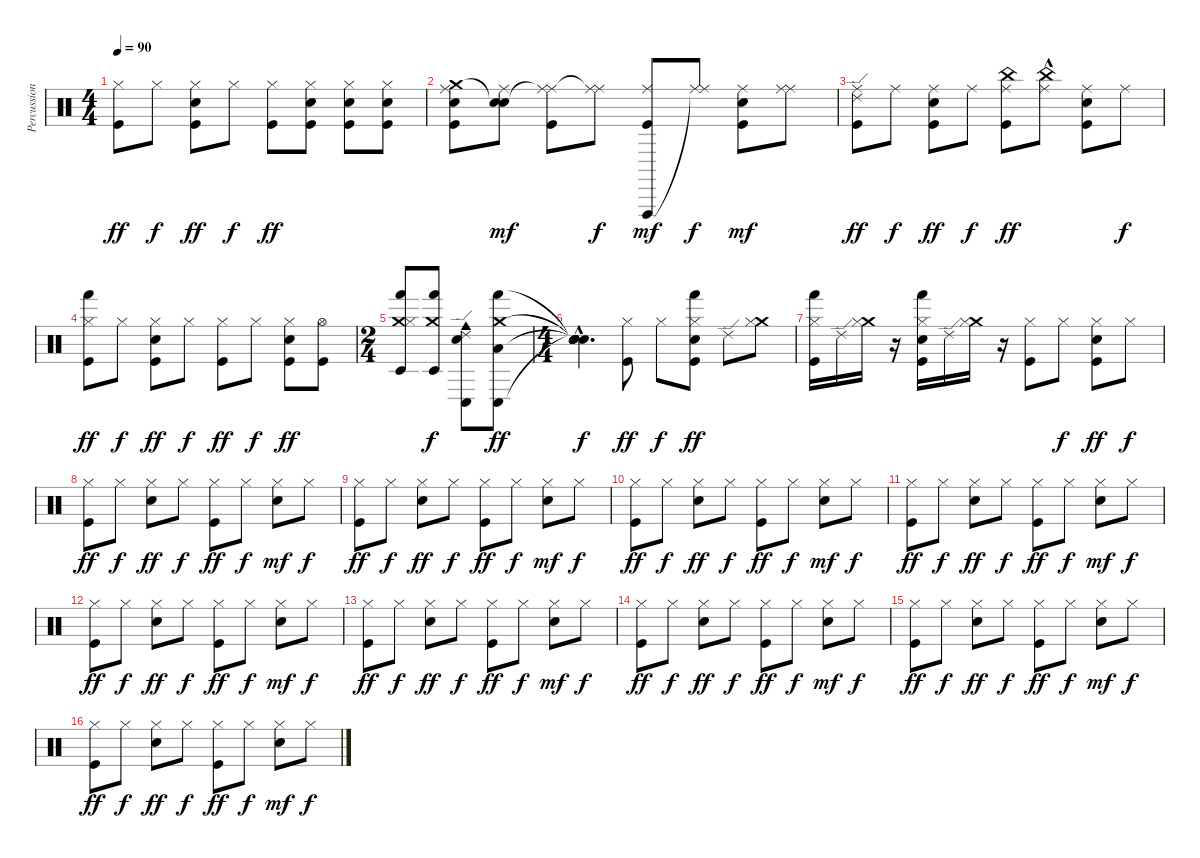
\track ("Percussion" "Percussion") {instrument percussion}
\staff {score}
\articulation defaults
\ts (4 4)
\tempo 90
\clef neutral
\ks c
("Hi-Hat (closed)" "Kick (hit)").8{dy ff} "Hi-Hat (closed)".8{dy f} ("Hi-Hat (closed)" "Snare (hit) 2" "Kick (hit)").8{dy ff} "Hi-Hat (closed)".8{dy f} ("Hi-Hat (closed)" "Kick (hit)").8{dy ff} ("Hi-Hat (closed)" "Snare (hit) 2" "Kick (hit)").8 ("Hi-Hat (closed)" "Snare (hit) 2" "Kick (hit)").8 ("Hi-Hat (closed)" "Snare (hit) 2" "Kick (hit)").8 |
("Crash medium (hit)" "Ride (middle)" "Snare (hit) 2" "Kick (hit)").8 ("Hand Clap (hit)"{t} "Ride (middle)" "Hand Clap (hit)").8{dy mf} ("Ride (middle)"{t} "Ride (middle)" "Kick (hit)").8 ("Ride (middle)"{t} "Ride (middle)").8{dy f} ("Vibraslap (hit)" "Ride (middle)" "Kick (hit)").8{dy mf} ("Ride (middle)"{t} "Ride (middle)").8{dy f} ("Ride (middle)" "Snare (hit) 2" "Kick (hit)").8{dy mf} ("Ride (middle)" "Ride (middle)").8 |
("Ride (edge) 2" "Ride (middle)" "Kick (hit)").8{dy ff} "Ride (middle)".8{dy f} ("Ride (middle)" "Snare (hit) 2" "Kick (hit)").8{dy ff} "Ride (middle)".8{dy f} ("China (hit)" "Ride (middle)" "Kick (hit)").8{dy ff} ("China (hit)" "Ride (middle)"{hac}).8 ("Ride (middle)" "Snare (hit) 2" "Kick (hit)").8 "Ride (middle)".8{dy f} |
("Hand (hit)" "Hi-Hat (closed)" "Kick (hit)").8{dy ff} "Hi-Hat (closed)".8{dy f} ("Hi-Hat (closed)" "Snare (hit) 2" "Kick (hit)").8{dy ff} "Hi-Hat (closed)".8{dy f} ("Hi-Hat (closed)" "Kick (hit)").8{dy ff} "Hi-Hat (closed)".8{dy f} ("Hi-Hat (closed)" "Snare (hit) 2" "Kick (hit)").8{dy ff} ("Hi-Hat (open)" "Kick (hit)").8 |
\ts (2 4)
("Timbale low (hit)" "Hand (hit)" "Crash medium (hit)" "Hi-Hat (closed)").8 ("Timbale low (hit)" "Hand (hit)" "Crash medium (hit)").8{dy f} ("Conga low (hit)" "Ride (edge) 2" "Cowbell medium (hit)" "Snare (hit) 2").8 ("Conga low (hit)" "Hand (hit)" "Crash medium (hit)" "Low Tom (hit)").8{dy ff} |
\ts (4 4)
("Snare (hit)"{hac t} "Snare (hit)"{hac t} "Snare (hit)"{hac t} "Snare (hit)"{hac t} "Snare (hit)"{hac}).4{d dy f} ("Hi-Hat (closed)" "Kick (hit)").8{dy ff} "Hi-Hat (closed)".8{dy f} ("Hand (hit)" "Hi-Hat (closed)" "Snare (hit) 2" "Kick (hit)").8{dy ff} "Ride (edge) 2".8 ("Crash medium (hit)" "Hi-Hat (closed)").8 |
("Hand (hit)" "Hi-Hat (closed)" "Kick (hit)").16 "Ride (edge) 2".16 ("Crash medium (hit)" "Hi-Hat (closed)").16 r.16 ("Hand (hit)" "Hi-Hat (closed)" "Snare (hit) 2" "Kick (hit)").16 "Ride (edge) 2".16 ("Crash medium (hit)" "Hi-Hat (closed)").16 r.16 ("Hi-Hat (closed)" "Kick (hit)").8 "Hi-Hat (closed)".8{dy f} ("Hi-Hat (closed)" "Snare (hit) 2" "Kick (hit)").8{dy ff} "Hi-Hat (closed)".8{dy f} |
("Hi-Hat (closed)" "Kick (hit)").8{dy ff} "Hi-Hat (closed)".8{dy f} ("Hi-Hat (closed)" "Snare (hit) 2").8{dy ff} "Hi-Hat (closed)".8{dy f} ("Hi-Hat (closed)" "Kick (hit)").8{dy ff} "Hi-Hat (closed)".8{dy f} ("Hi-Hat (closed)" "Snare (hit) 2").8{dy mf} "Hi-Hat (closed)".8{dy f} |
("Hi-Hat (closed)" "Kick (hit)").8{dy ff} "Hi-Hat (closed)".8{dy f} ("Hi-Hat (closed)" "Snare (hit) 2").8{dy ff} "Hi-Hat (closed)".8{dy f} ("Hi-Hat (closed)" "Kick (hit)").8{dy ff} "Hi-Hat (closed)".8{dy f} ("Hi-Hat (closed)" "Snare (hit) 2").8{dy mf} "Hi-Hat (closed)".8{dy f} |
("Hi-Hat (closed)" "Kick (hit)").8{dy ff} "Hi-Hat (closed)".8{dy f} ("Hi-Hat (closed)" "Snare (hit) 2").8{dy ff} "Hi-Hat (closed)".8{dy f} ("Hi-Hat (closed)" "Kick (hit)").8{dy ff} "Hi-Hat (closed)".8{dy f} ("Hi-Hat (closed)" "Snare (hit) 2").8{dy mf} "Hi-Hat (closed)".8{dy f} |
("Hi-Hat (closed)" "Kick (hit)").8{dy ff} "Hi-Hat (closed)".8{dy f} ("Hi-Hat (closed)" "Snare (hit) 2").8{dy ff} "Hi-Hat (closed)".8{dy f} ("Hi-Hat (closed)" "Kick (hit)").8{dy ff} "Hi-Hat (closed)".8{dy f} ("Hi-Hat (closed)" "Snare (hit) 2").8{dy mf} "Hi-Hat (closed)".8{dy f} |
("Hi-Hat (closed)" "Kick (hit)").8{dy ff} "Hi-Hat (closed)".8{dy f} ("Hi-Hat (closed)" "Snare (hit) 2").8{dy ff} "Hi-Hat (closed)".8{dy f} ("Hi-Hat (closed)" "Kick (hit)").8{dy ff} "Hi-Hat (closed)".8{dy f} ("Hi-Hat (closed)" "Snare (hit) 2").8{dy mf} "Hi-Hat (closed)".8{dy f} |
("Hi-Hat (closed)" "Kick (hit)").8{dy ff} "Hi-Hat (closed)".8{dy f} ("Hi-Hat (closed)" "Snare (hit) 2").8{dy ff} "Hi-Hat (closed)".8{dy f} ("Hi-Hat (closed)" "Kick (hit)").8{dy ff} "Hi-Hat (closed)".8{dy f} ("Hi-Hat (closed)" "Snare (hit) 2").8{dy mf} "Hi-Hat (closed)".8{dy f} |
("Hi-Hat (closed)" "Kick (hit)").8{dy ff} "Hi-Hat (closed)".8{dy f} ("Hi-Hat (closed)" "Snare (hit) 2").8{dy ff} "Hi-Hat (closed)".8{dy f} ("Hi-Hat (closed)" "Kick (hit)").8{dy ff} "Hi-Hat (closed)".8{dy f} ("Hi-Hat (closed)" "Snare (hit) 2").8{dy mf} "Hi-Hat (closed)".8{dy f} |
("Hi-Hat (closed)" "Kick (hit)").8{dy ff} "Hi-Hat (closed)".8{dy f} ("Hi-Hat (closed)" "Snare (hit) 2").8{dy ff} "Hi-Hat (closed)".8{dy f} ("Hi-Hat (closed)" "Kick (hit)").8{dy ff} "Hi-Hat (closed)".8{dy f} ("Hi-Hat (closed)" "Snare (hit) 2").8{dy mf} "Hi-Hat (closed)".8{dy f} |
("Hi-Hat (closed)" "Kick (hit)").8{dy ff} "Hi-Hat (closed)".8{dy f} ("Hi-Hat (closed)" "Snare (hit) 2").8{dy ff} "Hi-Hat (closed)".8{dy f} ("Hi-Hat (closed)" "Kick (hit)").8{dy ff} "Hi-Hat (closed)".8{dy f} ("Hi-Hat (closed)" "Snare (hit) 2").8{dy mf} "Hi-Hat (closed)".8{dy f}
